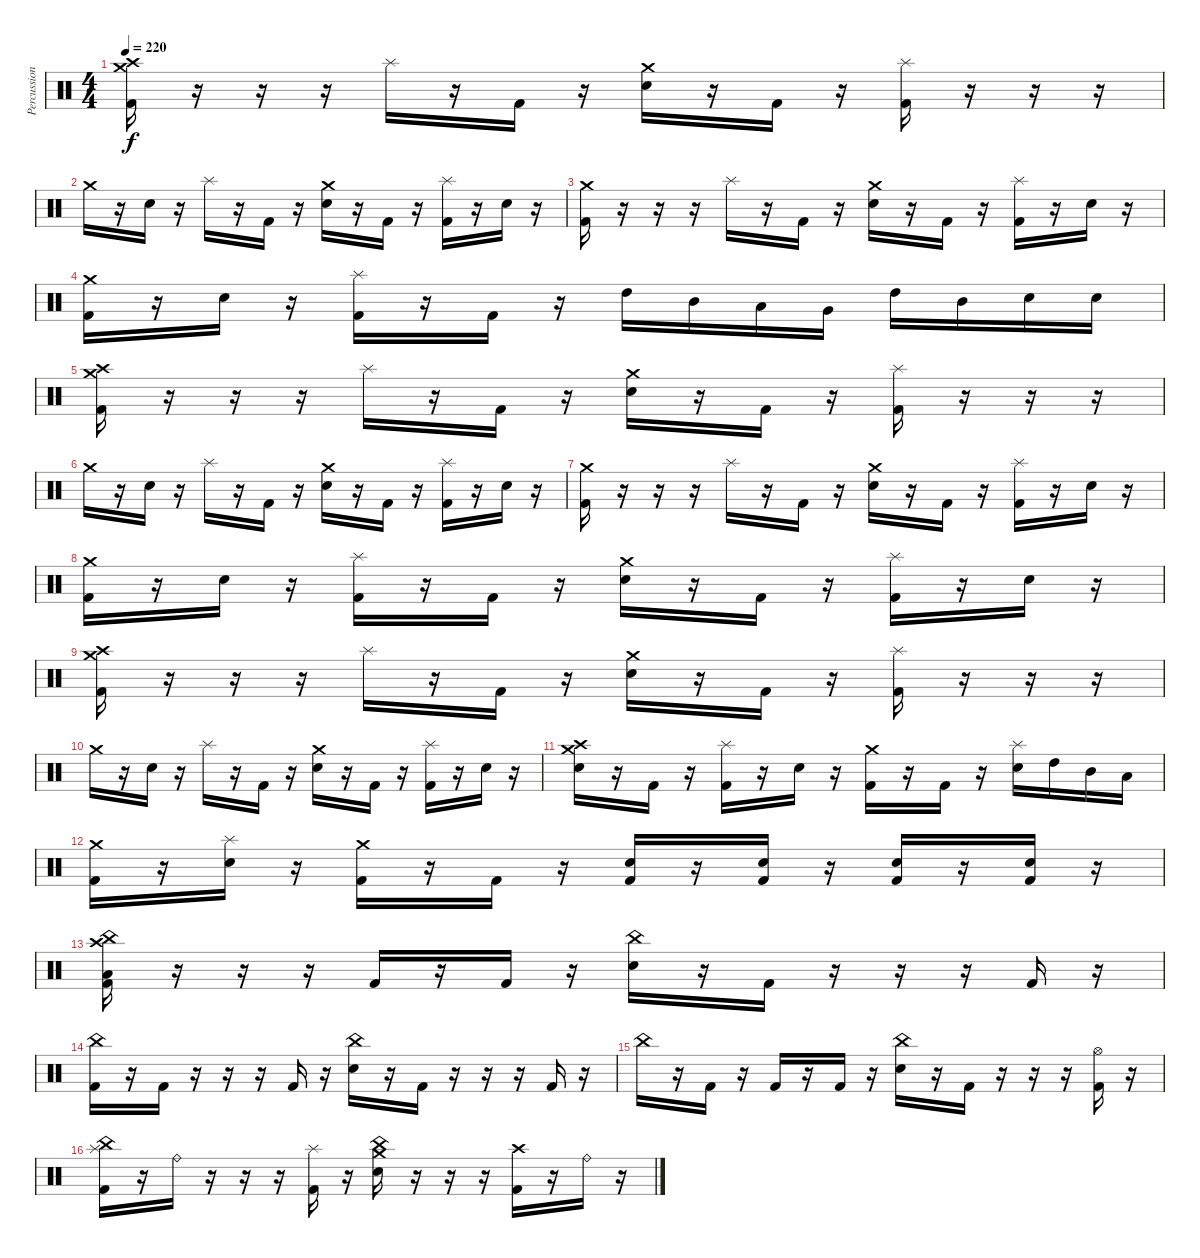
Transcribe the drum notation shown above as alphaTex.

\track ("Percussion" "Percussion") {instrument percussion}
\staff {score}
\articulation defaults
\ts (4 4)
\tempo 220
\clef neutral
\ks c
("Crash high (hit)" "Crash medium (hit)" "Kick (hit) 2").16{dy f} r.16 r.16 r.16 "Splash (hit)".16 r.16 "Kick (hit) 2".16 r.16 ("Crash medium (hit)" "Electric Snare (hit)").16 r.16 "Kick (hit) 2".16 r.16 ("Splash (hit)" "Kick (hit) 2").16 r.16 r.16 r.16 |
"Crash medium (hit)".16 r.16 "Electric Snare (hit)".16 r.16 "Splash (hit)".16 r.16 "Kick (hit) 2".16 r.16 ("Crash medium (hit)" "Electric Snare (hit)").16 r.16 "Kick (hit) 2".16 r.16 ("Splash (hit)" "Kick (hit) 2").16 r.16 "Electric Snare (hit)".16 r.16 |
("Crash medium (hit)" "Kick (hit) 2").16 r.16 r.16 r.16 "Splash (hit)".16 r.16 "Kick (hit) 2".16 r.16 ("Crash medium (hit)" "Electric Snare (hit)").16 r.16 "Kick (hit) 2".16 r.16 ("Splash (hit)" "Kick (hit) 2").16 r.16 "Electric Snare (hit)".16 r.16 |
("Crash medium (hit)" "Kick (hit) 2").16 r.16 "Electric Snare (hit)".16 r.16 ("Splash (hit)" "Kick (hit) 2").16 r.16 "Kick (hit) 2".16 r.16 "High Tom (hit)".16 "Mid Tom (hit)".16 "Low Tom (hit)".16 "Very Low Tom (hit)".16 "High Tom (hit)".16 "Mid Tom (hit)".16 "Electric Snare (hit)".16 "Electric Snare (hit)".16 |
("Crash high (hit)" "Crash medium (hit)" "Kick (hit) 2").16 r.16 r.16 r.16 "Splash (hit)".16 r.16 "Kick (hit) 2".16 r.16 ("Crash medium (hit)" "Electric Snare (hit)").16 r.16 "Kick (hit) 2".16 r.16 ("Splash (hit)" "Kick (hit) 2").16 r.16 r.16 r.16 |
"Crash medium (hit)".16 r.16 "Electric Snare (hit)".16 r.16 "Splash (hit)".16 r.16 "Kick (hit) 2".16 r.16 ("Crash medium (hit)" "Electric Snare (hit)").16 r.16 "Kick (hit) 2".16 r.16 ("Splash (hit)" "Kick (hit) 2").16 r.16 "Electric Snare (hit)".16 r.16 |
("Crash medium (hit)" "Kick (hit) 2").16 r.16 r.16 r.16 "Splash (hit)".16 r.16 "Kick (hit) 2".16 r.16 ("Crash medium (hit)" "Electric Snare (hit)").16 r.16 "Kick (hit) 2".16 r.16 ("Splash (hit)" "Kick (hit) 2").16 r.16 "Electric Snare (hit)".16 r.16 |
("Crash medium (hit)" "Kick (hit) 2").16 r.16 "Electric Snare (hit)".16 r.16 ("Splash (hit)" "Kick (hit) 2").16 r.16 "Kick (hit) 2".16 r.16 ("Crash medium (hit)" "Electric Snare (hit)").16 r.16 "Kick (hit) 2".16 r.16 ("Splash (hit)" "Kick (hit) 2").16 r.16 "Electric Snare (hit)".16 r.16 |
("Crash high (hit)" "Crash medium (hit)" "Kick (hit) 2").16 r.16 r.16 r.16 "Splash (hit)".16 r.16 "Kick (hit) 2".16 r.16 ("Crash medium (hit)" "Electric Snare (hit)").16 r.16 "Kick (hit) 2".16 r.16 ("Splash (hit)" "Kick (hit) 2").16 r.16 r.16 r.16 |
"Crash medium (hit)".16 r.16 "Electric Snare (hit)".16 r.16 "Splash (hit)".16 r.16 "Kick (hit) 2".16 r.16 ("Crash medium (hit)" "Electric Snare (hit)").16 r.16 "Kick (hit) 2".16 r.16 ("Splash (hit)" "Kick (hit) 2").16 r.16 "Electric Snare (hit)".16 r.16 |
("Crash medium (hit)" "Crash high (hit)" "Electric Snare (hit)").16 r.16 "Kick (hit) 2".16 r.16 ("Splash (hit)" "Kick (hit) 2").16 r.16 "Electric Snare (hit)".16 r.16 ("Crash medium (hit)" "Kick (hit) 2").16 r.16 "Kick (hit) 2".16 r.16 ("Splash (hit)" "Electric Snare (hit)").16 "High Tom (hit)".16 "Mid Tom (hit)".16 "Low Tom (hit)".16 |
("Crash medium (hit)" "Kick (hit) 2").16 r.16 ("Splash (hit)" "Electric Snare (hit)").16 r.16 ("Crash medium (hit)" "Kick (hit) 2").16 r.16 "Kick (hit) 2".16 r.16 ("Electric Snare (hit)" "Kick (hit) 2").16 r.16 ("Electric Snare (hit)" "Kick (hit) 2").16 r.16 ("Electric Snare (hit)" "Kick (hit) 2").16 r.16 ("Electric Snare (hit)" "Kick (hit) 2").16 r.16 |
("Crash high (hit)" "China (hit)" "Low Floor Tom (hit)" "Kick (hit) 2").16 r.16 r.16 r.16 "Kick (hit) 2".16 r.16 "Kick (hit) 2".16 r.16 ("China (hit)" "Electric Snare (hit)").16 r.16 "Kick (hit) 2".16 r.16 r.16 r.16 "Kick (hit) 2".16 r.16 |
("China (hit)" "Kick (hit) 2").16 r.16 "Kick (hit) 2".16 r.16 r.16 r.16 "Kick (hit) 2".16 r.16 ("China (hit)" "Electric Snare (hit)").16 r.16 "Kick (hit) 2".16 r.16 r.16 r.16 "Kick (hit) 2".16 r.16 |
"China (hit)".16 r.16 "Kick (hit) 2".16 r.16 "Kick (hit) 2".16 r.16 "Kick (hit) 2".16 r.16 ("China (hit)" "Electric Snare (hit)").16 r.16 "Kick (hit) 2".16 r.16 r.16 r.16 ("Hi-Hat (open)" "Kick (hit) 2").16 r.16 |
("China (hit)" "Splash (hit)" "Kick (hit) 2").16 r.16 "Ride (bell)".16 r.16 r.16 r.16 ("Splash (hit)" "Kick (hit) 2").16 r.16 ("China (hit)" "Crash medium (hit)" "Electric Snare (hit)").16 r.16 r.16 r.16 ("Crash high (hit)" "Kick (hit) 2").16 r.16 "Ride (bell)".16 r.16
